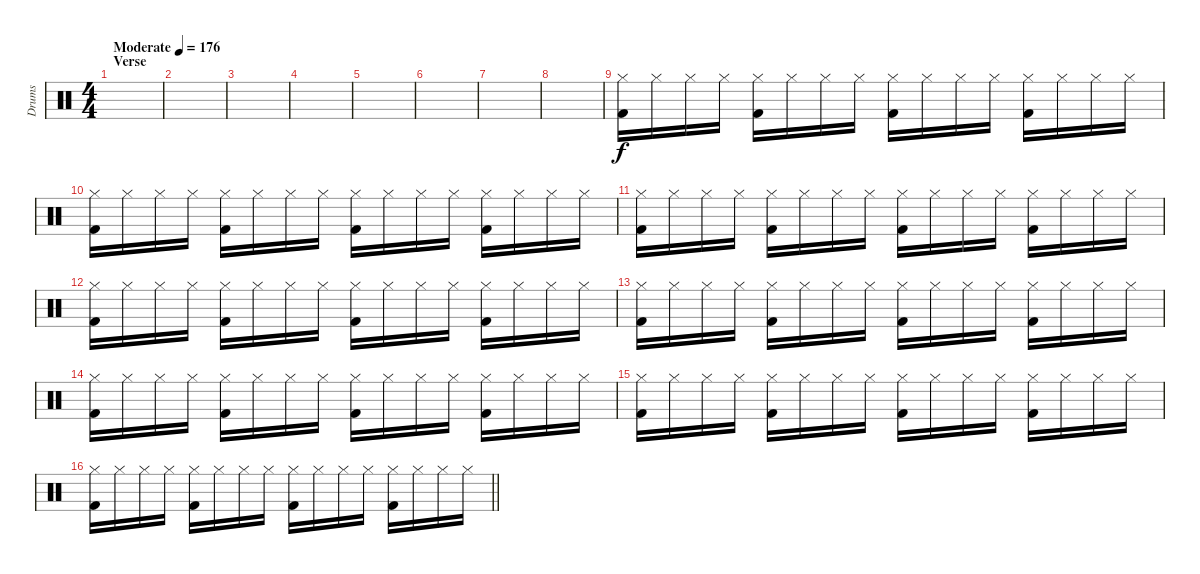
\track ("Drums" "Drums") {instrument percussion}
\staff {score}
\articulation defaults
\ts (4 4)
\section ("" "Verse")
\tempo (176 "Moderate")
\clef neutral
\ks c
|
|
|
|
|
|
|
|
("Hi-Hat (closed)" "Kick (hit) 2").16 "Hi-Hat (closed)".16 "Hi-Hat (closed)".16 "Hi-Hat (closed)".16 ("Hi-Hat (closed)" "Kick (hit) 2").16 "Hi-Hat (closed)".16 "Hi-Hat (closed)".16 "Hi-Hat (closed)".16 ("Hi-Hat (closed)" "Kick (hit) 2").16 "Hi-Hat (closed)".16 "Hi-Hat (closed)".16 "Hi-Hat (closed)".16 ("Hi-Hat (closed)" "Kick (hit) 2").16 "Hi-Hat (closed)".16 "Hi-Hat (closed)".16 "Hi-Hat (closed)".16 |
("Hi-Hat (closed)" "Kick (hit) 2").16 "Hi-Hat (closed)".16 "Hi-Hat (closed)".16 "Hi-Hat (closed)".16 ("Hi-Hat (closed)" "Kick (hit) 2").16 "Hi-Hat (closed)".16 "Hi-Hat (closed)".16 "Hi-Hat (closed)".16 ("Hi-Hat (closed)" "Kick (hit) 2").16 "Hi-Hat (closed)".16 "Hi-Hat (closed)".16 "Hi-Hat (closed)".16 ("Hi-Hat (closed)" "Kick (hit) 2").16 "Hi-Hat (closed)".16 "Hi-Hat (closed)".16 "Hi-Hat (closed)".16 |
("Hi-Hat (closed)" "Kick (hit) 2").16 "Hi-Hat (closed)".16 "Hi-Hat (closed)".16 "Hi-Hat (closed)".16 ("Hi-Hat (closed)" "Kick (hit) 2").16 "Hi-Hat (closed)".16 "Hi-Hat (closed)".16 "Hi-Hat (closed)".16 ("Hi-Hat (closed)" "Kick (hit) 2").16 "Hi-Hat (closed)".16 "Hi-Hat (closed)".16 "Hi-Hat (closed)".16 ("Hi-Hat (closed)" "Kick (hit) 2").16 "Hi-Hat (closed)".16 "Hi-Hat (closed)".16 "Hi-Hat (closed)".16 |
("Hi-Hat (closed)" "Kick (hit) 2").16 "Hi-Hat (closed)".16 "Hi-Hat (closed)".16 "Hi-Hat (closed)".16 ("Hi-Hat (closed)" "Kick (hit) 2").16 "Hi-Hat (closed)".16 "Hi-Hat (closed)".16 "Hi-Hat (closed)".16 ("Hi-Hat (closed)" "Kick (hit) 2").16 "Hi-Hat (closed)".16 "Hi-Hat (closed)".16 "Hi-Hat (closed)".16 ("Hi-Hat (closed)" "Kick (hit) 2").16 "Hi-Hat (closed)".16 "Hi-Hat (closed)".16 "Hi-Hat (closed)".16 |
("Hi-Hat (closed)" "Kick (hit) 2").16 "Hi-Hat (closed)".16 "Hi-Hat (closed)".16 "Hi-Hat (closed)".16 ("Hi-Hat (closed)" "Kick (hit) 2").16 "Hi-Hat (closed)".16 "Hi-Hat (closed)".16 "Hi-Hat (closed)".16 ("Hi-Hat (closed)" "Kick (hit) 2").16 "Hi-Hat (closed)".16 "Hi-Hat (closed)".16 "Hi-Hat (closed)".16 ("Hi-Hat (closed)" "Kick (hit) 2").16 "Hi-Hat (closed)".16 "Hi-Hat (closed)".16 "Hi-Hat (closed)".16 |
("Hi-Hat (closed)" "Kick (hit) 2").16 "Hi-Hat (closed)".16 "Hi-Hat (closed)".16 "Hi-Hat (closed)".16 ("Hi-Hat (closed)" "Kick (hit) 2").16 "Hi-Hat (closed)".16 "Hi-Hat (closed)".16 "Hi-Hat (closed)".16 ("Hi-Hat (closed)" "Kick (hit) 2").16 "Hi-Hat (closed)".16 "Hi-Hat (closed)".16 "Hi-Hat (closed)".16 ("Hi-Hat (closed)" "Kick (hit) 2").16 "Hi-Hat (closed)".16 "Hi-Hat (closed)".16 "Hi-Hat (closed)".16 |
("Hi-Hat (closed)" "Kick (hit) 2").16 "Hi-Hat (closed)".16 "Hi-Hat (closed)".16 "Hi-Hat (closed)".16 ("Hi-Hat (closed)" "Kick (hit) 2").16 "Hi-Hat (closed)".16 "Hi-Hat (closed)".16 "Hi-Hat (closed)".16 ("Hi-Hat (closed)" "Kick (hit) 2").16 "Hi-Hat (closed)".16 "Hi-Hat (closed)".16 "Hi-Hat (closed)".16 ("Hi-Hat (closed)" "Kick (hit) 2").16 "Hi-Hat (closed)".16 "Hi-Hat (closed)".16 "Hi-Hat (closed)".16 |
\barLineRight lightlight
("Hi-Hat (closed)" "Kick (hit) 2").16 "Hi-Hat (closed)".16 "Hi-Hat (closed)".16 "Hi-Hat (closed)".16 ("Hi-Hat (closed)" "Kick (hit) 2").16 "Hi-Hat (closed)".16 "Hi-Hat (closed)".16 "Hi-Hat (closed)".16 ("Hi-Hat (closed)" "Kick (hit) 2").16 "Hi-Hat (closed)".16 "Hi-Hat (closed)".16 "Hi-Hat (closed)".16 ("Hi-Hat (closed)" "Kick (hit) 2").16 "Hi-Hat (closed)".16 "Hi-Hat (closed)".16 "Hi-Hat (closed)".16
